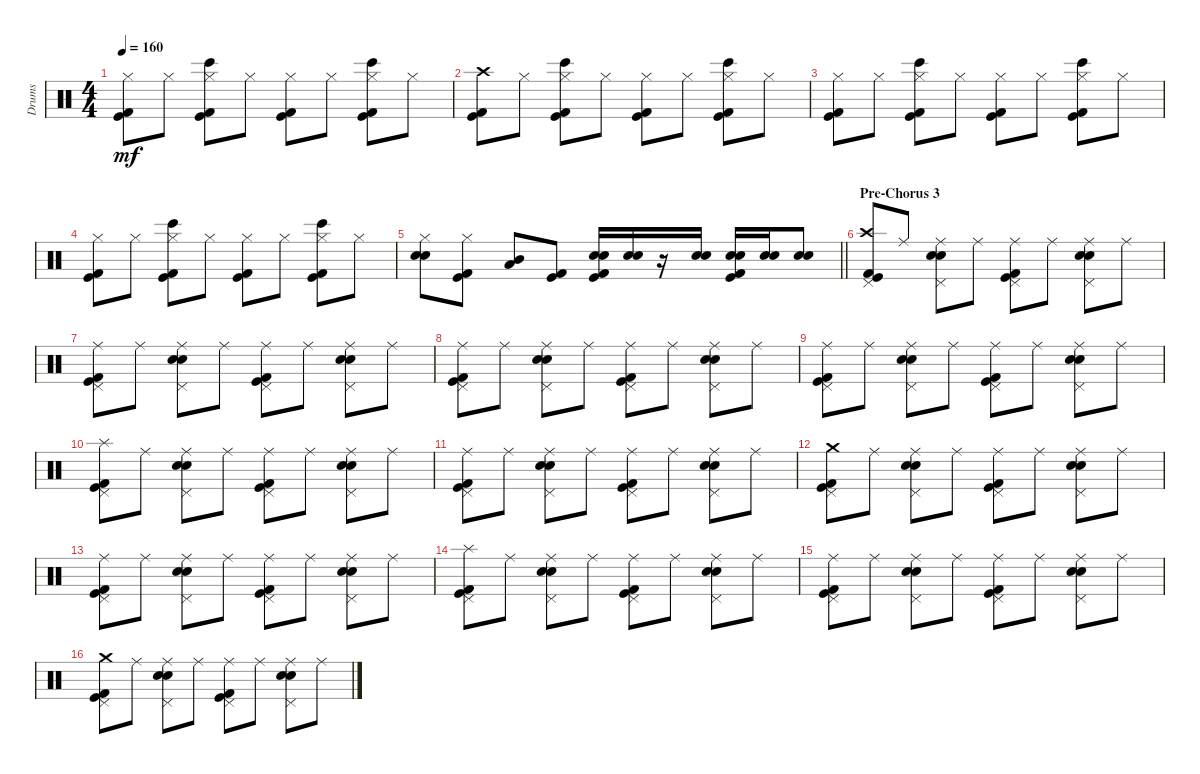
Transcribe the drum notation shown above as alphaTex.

\track ("Drums" "Drums") {instrument percussion}
\staff {score}
\articulation defaults
\ts (4 4)
\tempo 160
\clef neutral
\ks c
("Hi-Hat (closed)" "Kick (hit) 2" "Kick (hit)").8{dy mf} "Hi-Hat (closed)".8 ("Hi-Hat (closed)" "Bongo High (hit)" "Kick (hit) 2" "Kick (hit)").8 "Hi-Hat (closed)".8 ("Hi-Hat (closed)" "Kick (hit) 2" "Kick (hit)").8 "Hi-Hat (closed)".8 ("Hi-Hat (closed)" "Bongo High (hit)" "Kick (hit) 2" "Kick (hit)").8 "Hi-Hat (closed)".8 |
("Crash high (hit)" "Kick (hit) 2" "Kick (hit)").8 "Hi-Hat (closed)".8 ("Hi-Hat (closed)" "Bongo High (hit)" "Kick (hit) 2" "Kick (hit)").8 "Hi-Hat (closed)".8 ("Hi-Hat (closed)" "Kick (hit) 2" "Kick (hit)").8 "Hi-Hat (closed)".8 ("Hi-Hat (closed)" "Bongo High (hit)" "Kick (hit) 2" "Kick (hit)").8 "Hi-Hat (closed)".8 |
("Hi-Hat (closed)" "Kick (hit) 2" "Kick (hit)").8 "Hi-Hat (closed)".8 ("Hi-Hat (closed)" "Bongo High (hit)" "Kick (hit) 2" "Kick (hit)").8 "Hi-Hat (closed)".8 ("Hi-Hat (closed)" "Kick (hit) 2" "Kick (hit)").8 "Hi-Hat (closed)".8 ("Hi-Hat (closed)" "Bongo High (hit)" "Kick (hit) 2" "Kick (hit)").8 "Hi-Hat (closed)".8 |
("Hi-Hat (closed)" "Kick (hit) 2" "Kick (hit)").8 "Hi-Hat (closed)".8 ("Hi-Hat (closed)" "Bongo High (hit)" "Kick (hit) 2" "Kick (hit)").8 "Hi-Hat (closed)".8 ("Hi-Hat (closed)" "Kick (hit) 2" "Kick (hit)").8 "Hi-Hat (closed)".8 ("Hi-Hat (closed)" "Bongo High (hit)" "Kick (hit) 2" "Kick (hit)").8 "Hi-Hat (closed)".8 |
\barLineRight lightlight
("Hi-Hat (closed)" "Snare (hit) 2" "Electric Snare (hit)").8 ("Hi-Hat (closed)" "Kick (hit) 2" "Kick (hit)").8 ("Mid Tom (hit)" "Low Tom (hit)").8 ("Kick (hit) 2" "Kick (hit)").8 ("Kick (hit) 2" "Snare (hit) 2" "Electric Snare (hit)" "Kick (hit)").16 ("Snare (hit) 2" "Electric Snare (hit)").16 r.16 ("Snare (hit) 2" "Electric Snare (hit)").16 ("Kick (hit) 2" "Snare (hit) 2" "Electric Snare (hit)" "Kick (hit)").16 ("Snare (hit) 2" "Electric Snare (hit)").16 ("Snare (hit) 2" "Electric Snare (hit)").8 |
\section ("" "Pre-Chorus 3")
("Crash high (hit)" "Pedal Hi-Hat (hit)" "Kick (hit) 2" "Kick (hit)").8 "Ride (middle)".8 ("Ride (middle)" "Pedal Hi-Hat (hit)" "Snare (hit) 2" "Electric Snare (hit)").8 "Ride (middle)".8 ("Ride (middle)" "Pedal Hi-Hat (hit)" "Kick (hit) 2" "Kick (hit)").8 "Ride (middle)".8 ("Ride (middle)" "Pedal Hi-Hat (hit)" "Snare (hit) 2" "Electric Snare (hit)").8 "Ride (middle)".8 |
("Ride (middle)" "Pedal Hi-Hat (hit)" "Kick (hit) 2" "Kick (hit)").8 "Ride (middle)".8 ("Ride (middle)" "Pedal Hi-Hat (hit)" "Snare (hit) 2" "Electric Snare (hit)").8 "Ride (middle)".8 ("Ride (middle)" "Pedal Hi-Hat (hit)" "Kick (hit) 2" "Kick (hit)").8 "Ride (middle)".8 ("Ride (middle)" "Pedal Hi-Hat (hit)" "Snare (hit) 2" "Electric Snare (hit)").8 "Ride (middle)".8 |
("Ride (middle)" "Pedal Hi-Hat (hit)" "Kick (hit) 2" "Kick (hit)").8 "Ride (middle)".8 ("Ride (middle)" "Pedal Hi-Hat (hit)" "Snare (hit) 2" "Electric Snare (hit)").8 "Ride (middle)".8 ("Ride (middle)" "Pedal Hi-Hat (hit)" "Kick (hit) 2" "Kick (hit)").8 "Ride (middle)".8 ("Ride (middle)" "Pedal Hi-Hat (hit)" "Snare (hit) 2" "Electric Snare (hit)").8 "Ride (middle)".8 |
("Ride (middle)" "Pedal Hi-Hat (hit)" "Kick (hit) 2" "Kick (hit)").8 "Ride (middle)".8 ("Ride (middle)" "Pedal Hi-Hat (hit)" "Snare (hit) 2" "Electric Snare (hit)").8 "Ride (middle)".8 ("Ride (middle)" "Pedal Hi-Hat (hit)" "Kick (hit) 2" "Kick (hit)").8 "Ride (middle)".8 ("Ride (middle)" "Pedal Hi-Hat (hit)" "Snare (hit) 2" "Electric Snare (hit)").8 "Ride (middle)".8 |
("Splash (hit)" "Pedal Hi-Hat (hit)" "Kick (hit) 2" "Kick (hit)").8 "Ride (middle)".8 ("Ride (middle)" "Pedal Hi-Hat (hit)" "Snare (hit) 2" "Electric Snare (hit)").8 "Ride (middle)".8 ("Ride (middle)" "Pedal Hi-Hat (hit)" "Kick (hit) 2" "Kick (hit)").8 "Ride (middle)".8 ("Ride (middle)" "Pedal Hi-Hat (hit)" "Snare (hit) 2" "Electric Snare (hit)").8 "Ride (middle)".8 |
("Ride (middle)" "Pedal Hi-Hat (hit)" "Kick (hit) 2" "Kick (hit)").8 "Ride (middle)".8 ("Ride (middle)" "Pedal Hi-Hat (hit)" "Snare (hit) 2" "Electric Snare (hit)").8 "Ride (middle)".8 ("Ride (middle)" "Pedal Hi-Hat (hit)" "Kick (hit) 2" "Kick (hit)").8 "Ride (middle)".8 ("Ride (middle)" "Pedal Hi-Hat (hit)" "Snare (hit) 2" "Electric Snare (hit)").8 "Ride (middle)".8 |
("Crash medium (hit)" "Pedal Hi-Hat (hit)" "Kick (hit) 2" "Kick (hit)").8 "Ride (middle)".8 ("Ride (middle)" "Pedal Hi-Hat (hit)" "Snare (hit) 2" "Electric Snare (hit)").8 "Ride (middle)".8 ("Ride (middle)" "Pedal Hi-Hat (hit)" "Kick (hit) 2" "Kick (hit)").8 "Ride (middle)".8 ("Ride (middle)" "Pedal Hi-Hat (hit)" "Snare (hit) 2" "Electric Snare (hit)").8 "Ride (middle)".8 |
("Ride (middle)" "Pedal Hi-Hat (hit)" "Kick (hit) 2" "Kick (hit)").8 "Ride (middle)".8 ("Ride (middle)" "Pedal Hi-Hat (hit)" "Snare (hit) 2" "Electric Snare (hit)").8 "Ride (middle)".8 ("Ride (middle)" "Pedal Hi-Hat (hit)" "Kick (hit) 2" "Kick (hit)").8 "Ride (middle)".8 ("Ride (middle)" "Pedal Hi-Hat (hit)" "Snare (hit) 2" "Electric Snare (hit)").8 "Ride (middle)".8 |
("Splash (hit)" "Pedal Hi-Hat (hit)" "Kick (hit) 2" "Kick (hit)").8 "Ride (middle)".8 ("Ride (middle)" "Pedal Hi-Hat (hit)" "Snare (hit) 2" "Electric Snare (hit)").8 "Ride (middle)".8 ("Ride (middle)" "Pedal Hi-Hat (hit)" "Kick (hit) 2" "Kick (hit)").8 "Ride (middle)".8 ("Ride (middle)" "Pedal Hi-Hat (hit)" "Snare (hit) 2" "Electric Snare (hit)").8 "Ride (middle)".8 |
("Ride (middle)" "Pedal Hi-Hat (hit)" "Kick (hit) 2" "Kick (hit)").8 "Ride (middle)".8 ("Ride (middle)" "Pedal Hi-Hat (hit)" "Snare (hit) 2" "Electric Snare (hit)").8 "Ride (middle)".8 ("Ride (middle)" "Pedal Hi-Hat (hit)" "Kick (hit) 2" "Kick (hit)").8 "Ride (middle)".8 ("Ride (middle)" "Pedal Hi-Hat (hit)" "Snare (hit) 2" "Electric Snare (hit)").8 "Ride (middle)".8 |
("Crash medium (hit)" "Pedal Hi-Hat (hit)" "Kick (hit) 2" "Kick (hit)").8 "Ride (middle)".8 ("Ride (middle)" "Pedal Hi-Hat (hit)" "Snare (hit) 2" "Electric Snare (hit)").8 "Ride (middle)".8 ("Ride (middle)" "Pedal Hi-Hat (hit)" "Kick (hit) 2" "Kick (hit)").8 "Ride (middle)".8 ("Ride (middle)" "Pedal Hi-Hat (hit)" "Snare (hit) 2" "Electric Snare (hit)").8 "Ride (middle)".8
